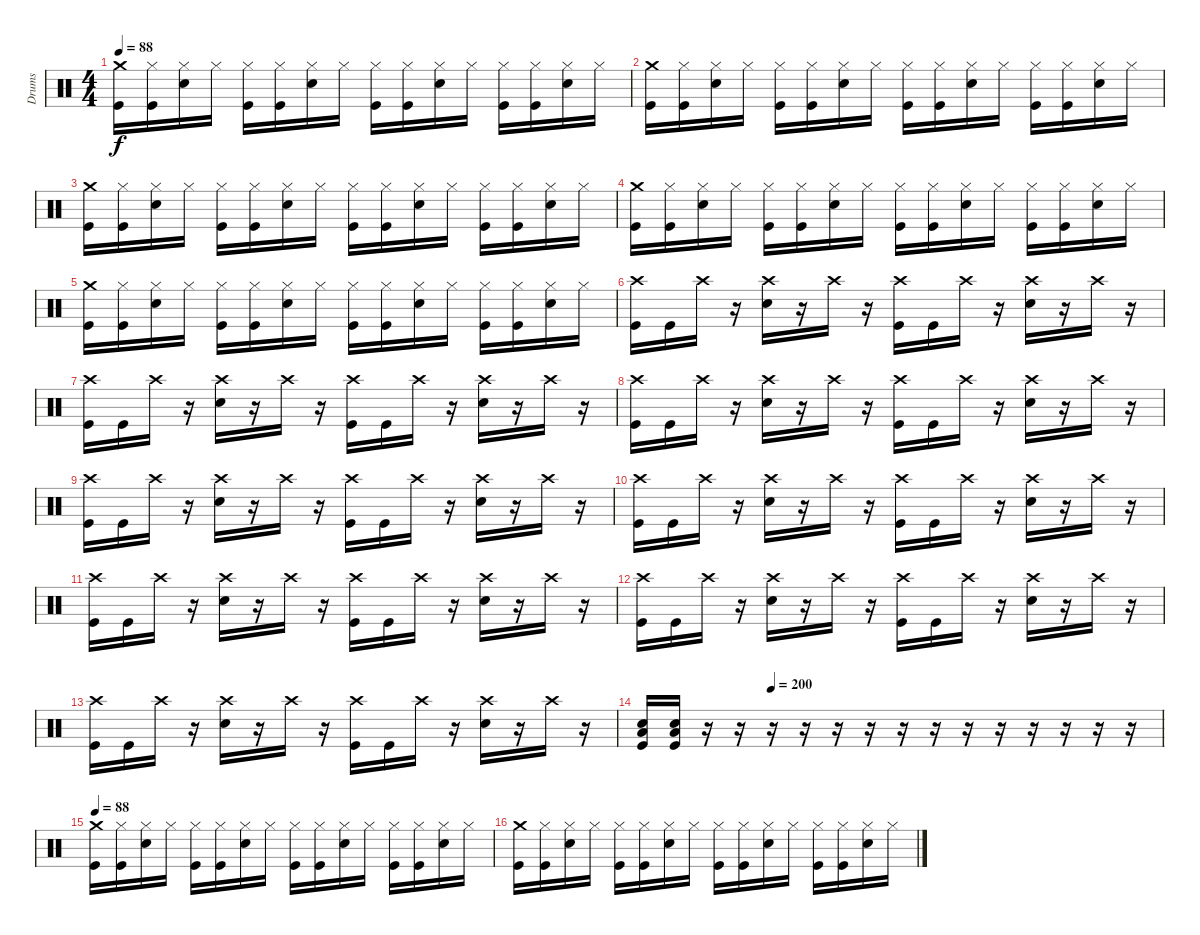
\track ("Drums" "Drums") {instrument percussion}
\staff {score}
\articulation defaults
\ts (4 4)
\tempo 88
\clef neutral
\ks c
("Crash medium (hit)" "Kick (hit)").16{dy f} ("Hi-Hat (closed)" "Kick (hit)").16 ("Hi-Hat (closed)" "Electric Snare (hit)").16 "Hi-Hat (closed)".16 ("Hi-Hat (closed)" "Kick (hit)").16 ("Hi-Hat (closed)" "Kick (hit)").16 ("Hi-Hat (closed)" "Electric Snare (hit)").16 "Hi-Hat (closed)".16 ("Hi-Hat (closed)" "Kick (hit)").16 ("Hi-Hat (closed)" "Kick (hit)").16 ("Hi-Hat (closed)" "Electric Snare (hit)").16 "Hi-Hat (closed)".16 ("Hi-Hat (closed)" "Kick (hit)").16 ("Hi-Hat (closed)" "Kick (hit)").16 ("Hi-Hat (closed)" "Electric Snare (hit)").16 "Hi-Hat (closed)".16 |
("Crash medium (hit)" "Kick (hit)").16 ("Hi-Hat (closed)" "Kick (hit)").16 ("Hi-Hat (closed)" "Electric Snare (hit)").16 "Hi-Hat (closed)".16 ("Hi-Hat (closed)" "Kick (hit)").16 ("Hi-Hat (closed)" "Kick (hit)").16 ("Hi-Hat (closed)" "Electric Snare (hit)").16 "Hi-Hat (closed)".16 ("Hi-Hat (closed)" "Kick (hit)").16 ("Hi-Hat (closed)" "Kick (hit)").16 ("Hi-Hat (closed)" "Electric Snare (hit)").16 "Hi-Hat (closed)".16 ("Hi-Hat (closed)" "Kick (hit)").16 ("Hi-Hat (closed)" "Kick (hit)").16 ("Hi-Hat (closed)" "Electric Snare (hit)").16 "Hi-Hat (closed)".16 |
("Crash medium (hit)" "Kick (hit)").16 ("Hi-Hat (closed)" "Kick (hit)").16 ("Hi-Hat (closed)" "Electric Snare (hit)").16 "Hi-Hat (closed)".16 ("Hi-Hat (closed)" "Kick (hit)").16 ("Hi-Hat (closed)" "Kick (hit)").16 ("Hi-Hat (closed)" "Electric Snare (hit)").16 "Hi-Hat (closed)".16 ("Hi-Hat (closed)" "Kick (hit)").16 ("Hi-Hat (closed)" "Kick (hit)").16 ("Hi-Hat (closed)" "Electric Snare (hit)").16 "Hi-Hat (closed)".16 ("Hi-Hat (closed)" "Kick (hit)").16 ("Hi-Hat (closed)" "Kick (hit)").16 ("Hi-Hat (closed)" "Electric Snare (hit)").16 "Hi-Hat (closed)".16 |
("Crash medium (hit)" "Kick (hit)").16 ("Hi-Hat (closed)" "Kick (hit)").16 ("Hi-Hat (closed)" "Electric Snare (hit)").16 "Hi-Hat (closed)".16 ("Hi-Hat (closed)" "Kick (hit)").16 ("Hi-Hat (closed)" "Kick (hit)").16 ("Hi-Hat (closed)" "Electric Snare (hit)").16 "Hi-Hat (closed)".16 ("Hi-Hat (closed)" "Kick (hit)").16 ("Hi-Hat (closed)" "Kick (hit)").16 ("Hi-Hat (closed)" "Electric Snare (hit)").16 "Hi-Hat (closed)".16 ("Hi-Hat (closed)" "Kick (hit)").16 ("Hi-Hat (closed)" "Kick (hit)").16 ("Hi-Hat (closed)" "Electric Snare (hit)").16 "Hi-Hat (closed)".16 |
("Crash medium (hit)" "Kick (hit)").16 ("Hi-Hat (closed)" "Kick (hit)").16 ("Hi-Hat (closed)" "Electric Snare (hit)").16 "Hi-Hat (closed)".16 ("Hi-Hat (closed)" "Kick (hit)").16 ("Hi-Hat (closed)" "Kick (hit)").16 ("Hi-Hat (closed)" "Electric Snare (hit)").16 "Hi-Hat (closed)".16 ("Hi-Hat (closed)" "Kick (hit)").16 ("Hi-Hat (closed)" "Kick (hit)").16 ("Hi-Hat (closed)" "Electric Snare (hit)").16 "Hi-Hat (closed)".16 ("Hi-Hat (closed)" "Kick (hit)").16 ("Hi-Hat (closed)" "Kick (hit)").16 ("Hi-Hat (closed)" "Electric Snare (hit)").16 "Hi-Hat (closed)".16 |
("Crash high (hit)" "Kick (hit)").16 "Kick (hit)".16 "Crash high (hit)".16 r.16 ("Crash high (hit)" "Electric Snare (hit)").16 r.16 "Crash high (hit)".16 r.16 ("Crash high (hit)" "Kick (hit)").16 "Kick (hit)".16 "Crash high (hit)".16 r.16 ("Crash high (hit)" "Electric Snare (hit)").16 r.16 "Crash high (hit)".16 r.16 |
("Crash high (hit)" "Kick (hit)").16 "Kick (hit)".16 "Crash high (hit)".16 r.16 ("Crash high (hit)" "Electric Snare (hit)").16 r.16 "Crash high (hit)".16 r.16 ("Crash high (hit)" "Kick (hit)").16 "Kick (hit)".16 "Crash high (hit)".16 r.16 ("Crash high (hit)" "Electric Snare (hit)").16 r.16 "Crash high (hit)".16 r.16 |
("Crash high (hit)" "Kick (hit)").16 "Kick (hit)".16 "Crash high (hit)".16 r.16 ("Crash high (hit)" "Electric Snare (hit)").16 r.16 "Crash high (hit)".16 r.16 ("Crash high (hit)" "Kick (hit)").16 "Kick (hit)".16 "Crash high (hit)".16 r.16 ("Crash high (hit)" "Electric Snare (hit)").16 r.16 "Crash high (hit)".16 r.16 |
("Crash high (hit)" "Kick (hit)").16 "Kick (hit)".16 "Crash high (hit)".16 r.16 ("Crash high (hit)" "Electric Snare (hit)").16 r.16 "Crash high (hit)".16 r.16 ("Crash high (hit)" "Kick (hit)").16 "Kick (hit)".16 "Crash high (hit)".16 r.16 ("Crash high (hit)" "Electric Snare (hit)").16 r.16 "Crash high (hit)".16 r.16 |
("Crash high (hit)" "Kick (hit)").16 "Kick (hit)".16 "Crash high (hit)".16 r.16 ("Crash high (hit)" "Electric Snare (hit)").16 r.16 "Crash high (hit)".16 r.16 ("Crash high (hit)" "Kick (hit)").16 "Kick (hit)".16 "Crash high (hit)".16 r.16 ("Crash high (hit)" "Electric Snare (hit)").16 r.16 "Crash high (hit)".16 r.16 |
("Crash high (hit)" "Kick (hit)").16 "Kick (hit)".16 "Crash high (hit)".16 r.16 ("Crash high (hit)" "Electric Snare (hit)").16 r.16 "Crash high (hit)".16 r.16 ("Crash high (hit)" "Kick (hit)").16 "Kick (hit)".16 "Crash high (hit)".16 r.16 ("Crash high (hit)" "Electric Snare (hit)").16 r.16 "Crash high (hit)".16 r.16 |
("Crash high (hit)" "Kick (hit)").16 "Kick (hit)".16 "Crash high (hit)".16 r.16 ("Crash high (hit)" "Electric Snare (hit)").16 r.16 "Crash high (hit)".16 r.16 ("Crash high (hit)" "Kick (hit)").16 "Kick (hit)".16 "Crash high (hit)".16 r.16 ("Crash high (hit)" "Electric Snare (hit)").16 r.16 "Crash high (hit)".16 r.16 |
("Crash high (hit)" "Kick (hit)").16 "Kick (hit)".16 "Crash high (hit)".16 r.16 ("Crash high (hit)" "Electric Snare (hit)").16 r.16 "Crash high (hit)".16 r.16 ("Crash high (hit)" "Kick (hit)").16 "Kick (hit)".16 "Crash high (hit)".16 r.16 ("Crash high (hit)" "Electric Snare (hit)").16 r.16 "Crash high (hit)".16 r.16 |
\tempo (200 0.25)
("Low Tom (hit)" "Electric Snare (hit)" "Kick (hit)").16 ("Low Tom (hit)" "Electric Snare (hit)" "Kick (hit)").16 r.16 r.16 r.16 r.16 r.16 r.16 r.16 r.16 r.16 r.16 r.16 r.16 r.16 r.16 |
\tempo 88
("Crash medium (hit)" "Kick (hit)").16 ("Hi-Hat (closed)" "Kick (hit)").16 ("Hi-Hat (closed)" "Electric Snare (hit)").16 "Hi-Hat (closed)".16 ("Hi-Hat (closed)" "Kick (hit)").16 ("Hi-Hat (closed)" "Kick (hit)").16 ("Hi-Hat (closed)" "Electric Snare (hit)").16 "Hi-Hat (closed)".16 ("Hi-Hat (closed)" "Kick (hit)").16 ("Hi-Hat (closed)" "Kick (hit)").16 ("Hi-Hat (closed)" "Electric Snare (hit)").16 "Hi-Hat (closed)".16 ("Hi-Hat (closed)" "Kick (hit)").16 ("Hi-Hat (closed)" "Kick (hit)").16 ("Hi-Hat (closed)" "Electric Snare (hit)").16 "Hi-Hat (closed)".16 |
("Crash medium (hit)" "Kick (hit)").16 ("Hi-Hat (closed)" "Kick (hit)").16 ("Hi-Hat (closed)" "Electric Snare (hit)").16 "Hi-Hat (closed)".16 ("Hi-Hat (closed)" "Kick (hit)").16 ("Hi-Hat (closed)" "Kick (hit)").16 ("Hi-Hat (closed)" "Electric Snare (hit)").16 "Hi-Hat (closed)".16 ("Hi-Hat (closed)" "Kick (hit)").16 ("Hi-Hat (closed)" "Kick (hit)").16 ("Hi-Hat (closed)" "Electric Snare (hit)").16 "Hi-Hat (closed)".16 ("Hi-Hat (closed)" "Kick (hit)").16 ("Hi-Hat (closed)" "Kick (hit)").16 ("Hi-Hat (closed)" "Electric Snare (hit)").16 "Hi-Hat (closed)".16
